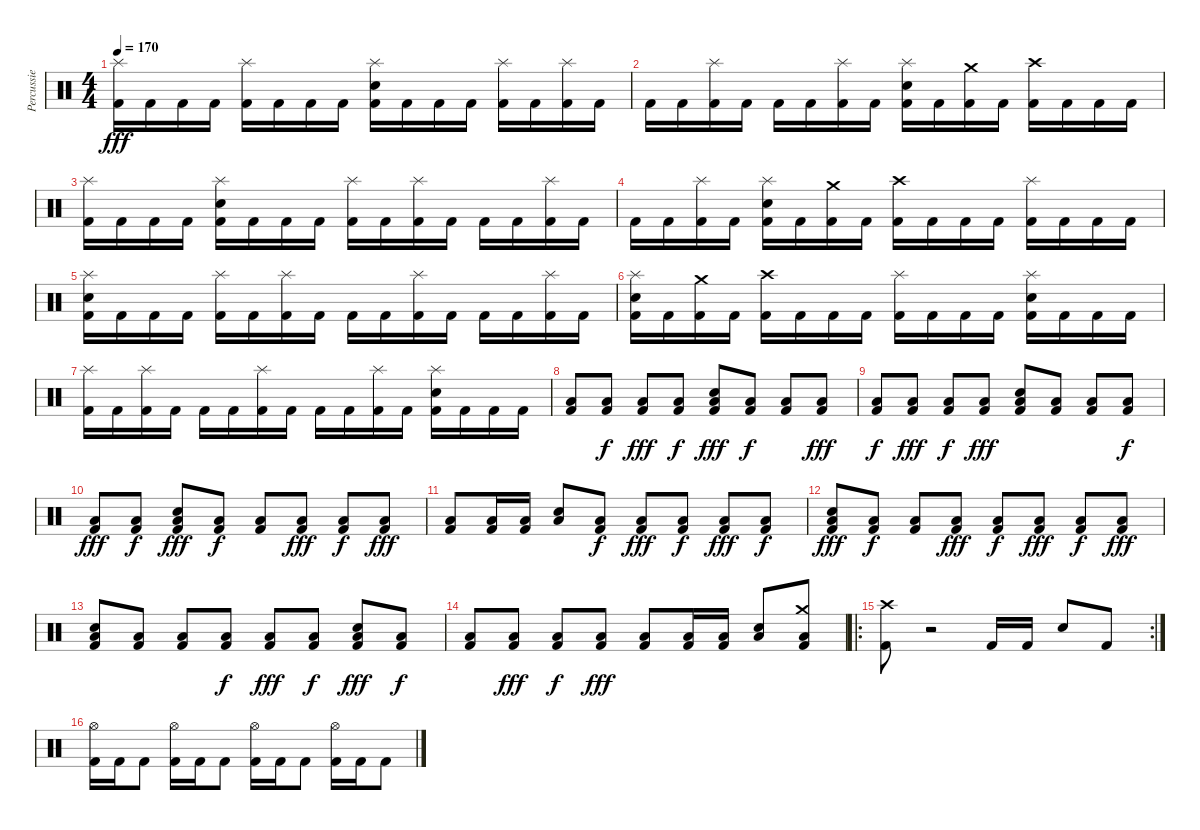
\track ("Percussie" "Percussie") {instrument percussion}
\staff {score}
\articulation defaults
\ts (4 4)
\tempo 170
\clef neutral
\ks c
("Splash (hit)" "Kick (hit) 2").16{dy fff} "Kick (hit) 2".16 "Kick (hit) 2".16 "Kick (hit) 2".16 ("Splash (hit)" "Kick (hit) 2").16 "Kick (hit) 2".16 "Kick (hit) 2".16 "Kick (hit) 2".16 ("Splash (hit)" "Electric Snare (hit)" "Kick (hit) 2").16 "Kick (hit) 2".16 "Kick (hit) 2".16 "Kick (hit) 2".16 ("Splash (hit)" "Kick (hit) 2").16 "Kick (hit) 2".16 ("Splash (hit)" "Kick (hit) 2").16 "Kick (hit) 2".16 |
"Kick (hit) 2".16 "Kick (hit) 2".16 ("Splash (hit)" "Kick (hit) 2").16 "Kick (hit) 2".16 "Kick (hit) 2".16 "Kick (hit) 2".16 ("Splash (hit)" "Kick (hit) 2").16 "Kick (hit) 2".16 ("Splash (hit)" "Electric Snare (hit)" "Kick (hit) 2").16 "Kick (hit) 2".16 ("Crash medium (hit)" "Kick (hit) 2").16 "Kick (hit) 2".16 ("Crash high (hit)" "Kick (hit) 2").16 "Kick (hit) 2".16 "Kick (hit) 2".16 "Kick (hit) 2".16 |
("Splash (hit)" "Kick (hit) 2").16 "Kick (hit) 2".16 "Kick (hit) 2".16 "Kick (hit) 2".16 ("Splash (hit)" "Electric Snare (hit)" "Kick (hit) 2").16 "Kick (hit) 2".16 "Kick (hit) 2".16 "Kick (hit) 2".16 ("Splash (hit)" "Kick (hit) 2").16 "Kick (hit) 2".16 ("Splash (hit)" "Kick (hit) 2").16 "Kick (hit) 2".16 "Kick (hit) 2".16 "Kick (hit) 2".16 ("Splash (hit)" "Kick (hit) 2").16 "Kick (hit) 2".16 |
"Kick (hit) 2".16 "Kick (hit) 2".16 ("Splash (hit)" "Kick (hit) 2").16 "Kick (hit) 2".16 ("Splash (hit)" "Electric Snare (hit)" "Kick (hit) 2").16 "Kick (hit) 2".16 ("Crash medium (hit)" "Kick (hit) 2").16 "Kick (hit) 2".16 ("Crash high (hit)" "Kick (hit) 2").16 "Kick (hit) 2".16 "Kick (hit) 2".16 "Kick (hit) 2".16 ("Splash (hit)" "Kick (hit) 2").16 "Kick (hit) 2".16 "Kick (hit) 2".16 "Kick (hit) 2".16 |
("Splash (hit)" "Electric Snare (hit)" "Kick (hit) 2").16 "Kick (hit) 2".16 "Kick (hit) 2".16 "Kick (hit) 2".16 ("Splash (hit)" "Kick (hit) 2").16 "Kick (hit) 2".16 ("Splash (hit)" "Kick (hit) 2").16 "Kick (hit) 2".16 "Kick (hit) 2".16 "Kick (hit) 2".16 ("Splash (hit)" "Kick (hit) 2").16 "Kick (hit) 2".16 "Kick (hit) 2".16 "Kick (hit) 2".16 ("Splash (hit)" "Kick (hit) 2").16 "Kick (hit) 2".16 |
("Splash (hit)" "Electric Snare (hit)" "Kick (hit) 2").16 "Kick (hit) 2".16 ("Crash medium (hit)" "Kick (hit) 2").16 "Kick (hit) 2".16 ("Crash high (hit)" "Kick (hit) 2").16 "Kick (hit) 2".16 "Kick (hit) 2".16 "Kick (hit) 2".16 ("Splash (hit)" "Kick (hit) 2").16 "Kick (hit) 2".16 "Kick (hit) 2".16 "Kick (hit) 2".16 ("Splash (hit)" "Electric Snare (hit)" "Kick (hit) 2").16 "Kick (hit) 2".16 "Kick (hit) 2".16 "Kick (hit) 2".16 |
("Splash (hit)" "Kick (hit) 2").16 "Kick (hit) 2".16 ("Splash (hit)" "Kick (hit) 2").16 "Kick (hit) 2".16 "Kick (hit) 2".16 "Kick (hit) 2".16 ("Splash (hit)" "Kick (hit) 2").16 "Kick (hit) 2".16 "Kick (hit) 2".16 "Kick (hit) 2".16 ("Splash (hit)" "Kick (hit) 2").16 "Kick (hit) 2".16 ("Splash (hit)" "Electric Snare (hit)" "Kick (hit) 2").16 "Kick (hit) 2".16 "Kick (hit) 2".16 "Kick (hit) 2".16 |
("Low Floor Tom (hit)" "Kick (hit) 2").8 ("Low Floor Tom (hit)" "Kick (hit) 2").8{dy f} ("Low Floor Tom (hit)" "Kick (hit) 2").8{dy fff} ("Low Floor Tom (hit)" "Kick (hit) 2").8{dy f} ("Electric Snare (hit)" "Low Floor Tom (hit)" "Kick (hit) 2").8{dy fff} ("Low Floor Tom (hit)" "Kick (hit) 2").8{dy f} ("Low Floor Tom (hit)" "Kick (hit) 2").8 ("Low Floor Tom (hit)" "Kick (hit) 2").8{dy fff} |
("Low Floor Tom (hit)" "Kick (hit) 2").8{dy f} ("Low Floor Tom (hit)" "Kick (hit) 2").8{dy fff} ("Low Floor Tom (hit)" "Kick (hit) 2").8{dy f} ("Low Floor Tom (hit)" "Kick (hit) 2").8{dy fff} ("Electric Snare (hit)" "Low Floor Tom (hit)" "Kick (hit) 2").8 ("Low Floor Tom (hit)" "Kick (hit) 2").8 ("Low Floor Tom (hit)" "Kick (hit) 2").8 ("Low Floor Tom (hit)" "Kick (hit) 2").8{dy f} |
("Low Floor Tom (hit)" "Kick (hit) 2").8{dy fff} ("Low Floor Tom (hit)" "Kick (hit) 2").8{dy f} ("Electric Snare (hit)" "Low Floor Tom (hit)" "Kick (hit) 2").8{dy fff} ("Low Floor Tom (hit)" "Kick (hit) 2").8{dy f} ("Low Floor Tom (hit)" "Kick (hit) 2").8 ("Low Floor Tom (hit)" "Kick (hit) 2").8{dy fff} ("Low Floor Tom (hit)" "Kick (hit) 2").8{dy f} ("Low Floor Tom (hit)" "Kick (hit) 2").8{dy fff} |
("Low Floor Tom (hit)" "Kick (hit) 2").8 ("Low Floor Tom (hit)" "Kick (hit) 2").16 ("Low Floor Tom (hit)" "Kick (hit) 2").16 ("Electric Snare (hit)" "Low Floor Tom (hit)").8 ("Low Floor Tom (hit)" "Kick (hit) 2").8{dy f} ("Low Floor Tom (hit)" "Kick (hit) 2").8{dy fff} ("Low Floor Tom (hit)" "Kick (hit) 2").8{dy f} ("Low Floor Tom (hit)" "Kick (hit) 2").8{dy fff} ("Low Floor Tom (hit)" "Kick (hit) 2").8{dy f} |
("Electric Snare (hit)" "Low Floor Tom (hit)" "Kick (hit) 2").8{dy fff} ("Low Floor Tom (hit)" "Kick (hit) 2").8{dy f} ("Low Floor Tom (hit)" "Kick (hit) 2").8 ("Low Floor Tom (hit)" "Kick (hit) 2").8{dy fff} ("Low Floor Tom (hit)" "Kick (hit) 2").8{dy f} ("Low Floor Tom (hit)" "Kick (hit) 2").8{dy fff} ("Low Floor Tom (hit)" "Kick (hit) 2").8{dy f} ("Low Floor Tom (hit)" "Kick (hit) 2").8{dy fff} |
("Electric Snare (hit)" "Low Floor Tom (hit)" "Kick (hit) 2").8 ("Low Floor Tom (hit)" "Kick (hit) 2").8 ("Low Floor Tom (hit)" "Kick (hit) 2").8 ("Low Floor Tom (hit)" "Kick (hit) 2").8{dy f} ("Low Floor Tom (hit)" "Kick (hit) 2").8{dy fff} ("Low Floor Tom (hit)" "Kick (hit) 2").8{dy f} ("Electric Snare (hit)" "Low Floor Tom (hit)" "Kick (hit) 2").8{dy fff} ("Low Floor Tom (hit)" "Kick (hit) 2").8{dy f} |
("Low Floor Tom (hit)" "Kick (hit) 2").8 ("Low Floor Tom (hit)" "Kick (hit) 2").8{dy fff} ("Low Floor Tom (hit)" "Kick (hit) 2").8{dy f} ("Low Floor Tom (hit)" "Kick (hit) 2").8{dy fff} ("Low Floor Tom (hit)" "Kick (hit) 2").8 ("Low Floor Tom (hit)" "Kick (hit) 2").16 ("Low Floor Tom (hit)" "Kick (hit) 2").16 ("Electric Snare (hit)" "Low Floor Tom (hit)").8 ("Crash medium (hit)" "Low Floor Tom (hit)" "Kick (hit) 2").8 |
\ro
\rc 2
("Crash high (hit)" "Kick (hit) 2").8 r.2{volume 0} "Kick (hit) 2".16{volume 16} "Kick (hit) 2".16 "Electric Snare (hit)".8 "Kick (hit) 2".8 |
("Hi-Hat (open)" "Kick (hit) 2").16 "Kick (hit) 2".16 "Kick (hit) 2".8 ("Hi-Hat (open)" "Kick (hit) 2").16 "Kick (hit) 2".16 "Kick (hit) 2".8 ("Hi-Hat (open)" "Kick (hit) 2").16 "Kick (hit) 2".16 "Kick (hit) 2".8 ("Hi-Hat (open)" "Kick (hit) 2").16 "Kick (hit) 2".16 "Kick (hit) 2".8
